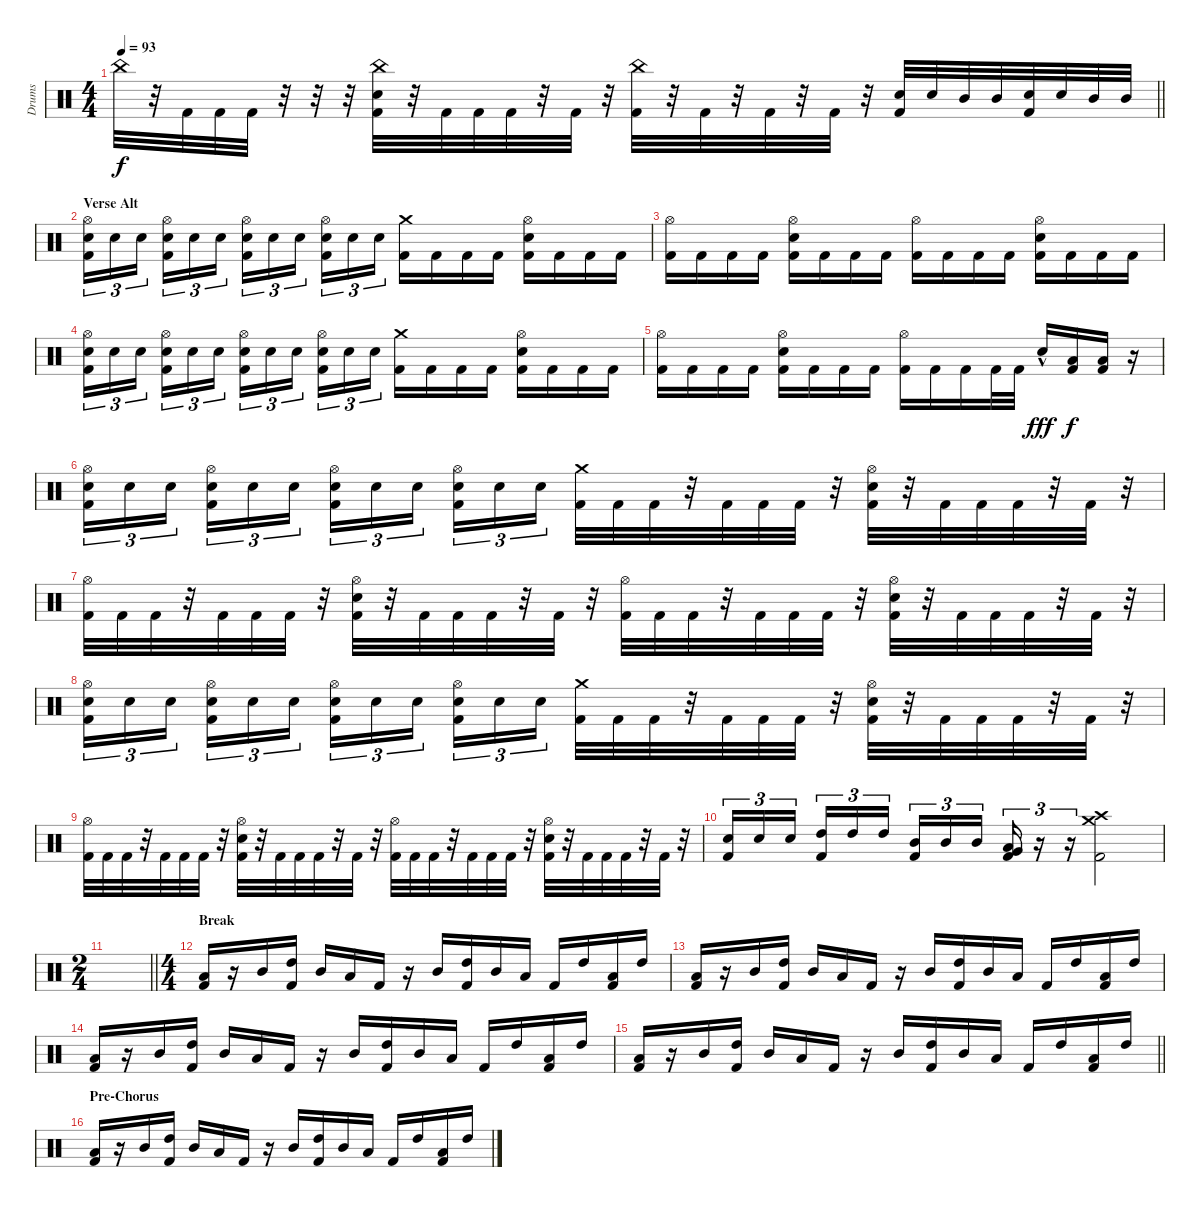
\track ("Drums" "Drums") {instrument percussion}
\staff {score}
\articulation defaults
\ts (4 4)
\tempo 93
\clef neutral
\barLineRight lightlight
\ks c "China (hit)".32{dy f}
r.32 "Kick (hit) 2".32 "Kick (hit) 2".32 "Kick (hit) 2".32 r.32 r.32 r.32 ("China (hit)" "Snare (hit) 2" "Kick (hit) 2").32 r.32 "Kick (hit) 2".32 "Kick (hit) 2".32 "Kick (hit) 2".32 r.32 "Kick (hit) 2".32 r.32 ("China (hit)" "Kick (hit) 2").32 r.32 "Kick (hit) 2".32 r.32 "Kick (hit) 2".32 r.32 "Kick (hit) 2".32 r.32 ("Snare (hit) 2" "Kick (hit) 2").32 "Snare (hit) 2".32 "Mid Tom (hit)".32 "Mid Tom (hit)".32 ("Snare (hit) 2" "Kick (hit) 2").32 "Snare (hit) 2".32 "Mid Tom (hit)".32 "Mid Tom (hit)".32 |
\section ("" "Verse Alt")
("Hi-Hat (open)" "Snare (hit) 2" "Kick (hit) 2").16{tu (3 2)} "Snare (hit) 2".16{tu (3 2)} "Snare (hit) 2".16{tu (3 2) beam splitsecondary} ("Hi-Hat (open)" "Snare (hit) 2" "Kick (hit) 2").16{tu (3 2)} "Snare (hit) 2".16{tu (3 2)} "Snare (hit) 2".16{tu (3 2)} ("Hi-Hat (open)" "Snare (hit) 2" "Kick (hit) 2").16{tu (3 2)} "Snare (hit) 2".16{tu (3 2)} "Snare (hit) 2".16{tu (3 2) beam splitsecondary} ("Hi-Hat (open)" "Snare (hit) 2" "Kick (hit) 2").16{tu (3 2)} "Snare (hit) 2".16{tu (3 2)} "Snare (hit) 2".16{tu (3 2)} ("Crash medium (hit)" "Kick (hit) 2").16 "Kick (hit) 2".16 "Kick (hit) 2".16 "Kick (hit) 2".16 ("Hi-Hat (open)" "Snare (hit) 2" "Kick (hit) 2").16 "Kick (hit) 2".16 "Kick (hit) 2".16 "Kick (hit) 2".16 |
("Hi-Hat (open)" "Kick (hit) 2").16 "Kick (hit) 2".16 "Kick (hit) 2".16 "Kick (hit) 2".16 ("Hi-Hat (open)" "Snare (hit) 2" "Kick (hit) 2").16 "Kick (hit) 2".16 "Kick (hit) 2".16 "Kick (hit) 2".16 ("Hi-Hat (open)" "Kick (hit) 2").16 "Kick (hit) 2".16 "Kick (hit) 2".16 "Kick (hit) 2".16 ("Hi-Hat (open)" "Snare (hit) 2" "Kick (hit) 2").16 "Kick (hit) 2".16 "Kick (hit) 2".16 "Kick (hit) 2".16 |
("Hi-Hat (open)" "Snare (hit) 2" "Kick (hit) 2").16{tu (3 2)} "Snare (hit) 2".16{tu (3 2)} "Snare (hit) 2".16{tu (3 2) beam splitsecondary} ("Hi-Hat (open)" "Snare (hit) 2" "Kick (hit) 2").16{tu (3 2)} "Snare (hit) 2".16{tu (3 2)} "Snare (hit) 2".16{tu (3 2)} ("Hi-Hat (open)" "Snare (hit) 2" "Kick (hit) 2").16{tu (3 2)} "Snare (hit) 2".16{tu (3 2)} "Snare (hit) 2".16{tu (3 2) beam splitsecondary} ("Hi-Hat (open)" "Snare (hit) 2" "Kick (hit) 2").16{tu (3 2)} "Snare (hit) 2".16{tu (3 2)} "Snare (hit) 2".16{tu (3 2)} ("Crash medium (hit)" "Kick (hit) 2").16 "Kick (hit) 2".16 "Kick (hit) 2".16 "Kick (hit) 2".16 ("Hi-Hat (open)" "Snare (hit) 2" "Kick (hit) 2").16 "Kick (hit) 2".16 "Kick (hit) 2".16 "Kick (hit) 2".16 |
("Hi-Hat (open)" "Kick (hit) 2").16 "Kick (hit) 2".16 "Kick (hit) 2".16 "Kick (hit) 2".16 ("Hi-Hat (open)" "Snare (hit) 2" "Kick (hit) 2").16 "Kick (hit) 2".16 "Kick (hit) 2".16 "Kick (hit) 2".16 ("Hi-Hat (open)" "Kick (hit) 2").16 "Kick (hit) 2".16 "Kick (hit) 2".16 "Kick (hit) 2".32 "Kick (hit) 2".32 "Snare (hit) 2"{hac}.16{dy fff} ("Low Tom (hit)" "Kick (hit) 2").16{dy f} ("Low Tom (hit)" "Kick (hit) 2").16 r.16 |
("Hi-Hat (open)" "Snare (hit) 2" "Kick (hit) 2").16{tu (3 2)} "Snare (hit) 2".16{tu (3 2)} "Snare (hit) 2".16{tu (3 2) beam splitsecondary} ("Hi-Hat (open)" "Snare (hit) 2" "Kick (hit) 2").16{tu (3 2)} "Snare (hit) 2".16{tu (3 2)} "Snare (hit) 2".16{tu (3 2)} ("Hi-Hat (open)" "Snare (hit) 2" "Kick (hit) 2").16{tu (3 2)} "Snare (hit) 2".16{tu (3 2)} "Snare (hit) 2".16{tu (3 2) beam splitsecondary} ("Hi-Hat (open)" "Snare (hit) 2" "Kick (hit) 2").16{tu (3 2)} "Snare (hit) 2".16{tu (3 2)} "Snare (hit) 2".16{tu (3 2)} ("Crash medium (hit)" "Kick (hit) 2").32 "Kick (hit) 2".32 "Kick (hit) 2".32 r.32 "Kick (hit) 2".32 "Kick (hit) 2".32 "Kick (hit) 2".32 r.32 ("Hi-Hat (open)" "Snare (hit) 2" "Kick (hit) 2").32 r.32 "Kick (hit) 2".32 "Kick (hit) 2".32 "Kick (hit) 2".32 r.32 "Kick (hit) 2".32 r.32 |
("Hi-Hat (open)" "Kick (hit) 2").32 "Kick (hit) 2".32 "Kick (hit) 2".32 r.32 "Kick (hit) 2".32 "Kick (hit) 2".32 "Kick (hit) 2".32 r.32 ("Hi-Hat (open)" "Snare (hit) 2" "Kick (hit) 2").32 r.32 "Kick (hit) 2".32 "Kick (hit) 2".32 "Kick (hit) 2".32 r.32 "Kick (hit) 2".32 r.32 ("Hi-Hat (open)" "Kick (hit) 2").32 "Kick (hit) 2".32 "Kick (hit) 2".32 r.32 "Kick (hit) 2".32 "Kick (hit) 2".32 "Kick (hit) 2".32 r.32 ("Hi-Hat (open)" "Snare (hit) 2" "Kick (hit) 2").32 r.32 "Kick (hit) 2".32 "Kick (hit) 2".32 "Kick (hit) 2".32 r.32 "Kick (hit) 2".32 r.32 |
("Hi-Hat (open)" "Snare (hit) 2" "Kick (hit) 2").16{tu (3 2)} "Snare (hit) 2".16{tu (3 2)} "Snare (hit) 2".16{tu (3 2) beam splitsecondary} ("Hi-Hat (open)" "Snare (hit) 2" "Kick (hit) 2").16{tu (3 2)} "Snare (hit) 2".16{tu (3 2)} "Snare (hit) 2".16{tu (3 2)} ("Hi-Hat (open)" "Snare (hit) 2" "Kick (hit) 2").16{tu (3 2)} "Snare (hit) 2".16{tu (3 2)} "Snare (hit) 2".16{tu (3 2) beam splitsecondary} ("Hi-Hat (open)" "Snare (hit) 2" "Kick (hit) 2").16{tu (3 2)} "Snare (hit) 2".16{tu (3 2)} "Snare (hit) 2".16{tu (3 2)} ("Crash medium (hit)" "Kick (hit) 2").32 "Kick (hit) 2".32 "Kick (hit) 2".32 r.32 "Kick (hit) 2".32 "Kick (hit) 2".32 "Kick (hit) 2".32 r.32 ("Hi-Hat (open)" "Snare (hit) 2" "Kick (hit) 2").32 r.32 "Kick (hit) 2".32 "Kick (hit) 2".32 "Kick (hit) 2".32 r.32 "Kick (hit) 2".32 r.32 |
("Hi-Hat (open)" "Kick (hit) 2").32 "Kick (hit) 2".32 "Kick (hit) 2".32 r.32 "Kick (hit) 2".32 "Kick (hit) 2".32 "Kick (hit) 2".32 r.32 ("Hi-Hat (open)" "Snare (hit) 2" "Kick (hit) 2").32 r.32 "Kick (hit) 2".32 "Kick (hit) 2".32 "Kick (hit) 2".32 r.32 "Kick (hit) 2".32 r.32 ("Hi-Hat (open)" "Kick (hit) 2").32 "Kick (hit) 2".32 "Kick (hit) 2".32 r.32 "Kick (hit) 2".32 "Kick (hit) 2".32 "Kick (hit) 2".32 r.32 ("Hi-Hat (open)" "Snare (hit) 2" "Kick (hit) 2").32 r.32 "Kick (hit) 2".32 "Kick (hit) 2".32 "Kick (hit) 2".32 r.32 "Kick (hit) 2".32 r.32 |
("Snare (hit) 2" "Kick (hit) 2").16{tu (3 2)} "Snare (hit) 2".16{tu (3 2)} "Snare (hit) 2".16{tu (3 2) beam splitsecondary} ("High Tom (hit)" "Kick (hit) 2").16{tu (3 2)} "High Tom (hit)".16{tu (3 2)} "High Tom (hit)".16{tu (3 2)} ("Mid Tom (hit)" "Kick (hit) 2").16{tu (3 2)} "Mid Tom (hit)".16{tu (3 2)} "Mid Tom (hit)".16{tu (3 2) beam splitsecondary} ("Low Tom (hit)" "Very Low Tom (hit)" "Kick (hit) 2").16{tu (3 2)} r.16{tu (3 2)} r.16{tu (3 2)} ("Crash medium (hit)" "Crash high (hit)" "Kick (hit) 2").2 |
\ts (2 4)
\barLineRight lightlight
|
\ts (4 4)
\section ("" "Break")
("Low Tom (hit)" "Kick (hit) 2").16 r.16 "Mid Tom (hit)".16 ("High Tom (hit)" "Kick (hit) 2").16 "Mid Tom (hit)".16 "Low Tom (hit)".16 "Kick (hit) 2".16 r.16 "Mid Tom (hit)".16 ("High Tom (hit)" "Kick (hit) 2").16 "Mid Tom (hit)".16 "Low Tom (hit)".16 "Kick (hit) 2".16 "High Tom (hit)".16 ("Low Tom (hit)" "Kick (hit) 2").16 "High Tom (hit)".16 |
("Low Tom (hit)" "Kick (hit) 2").16 r.16 "Mid Tom (hit)".16 ("High Tom (hit)" "Kick (hit) 2").16 "Mid Tom (hit)".16 "Low Tom (hit)".16 "Kick (hit) 2".16 r.16 "Mid Tom (hit)".16 ("High Tom (hit)" "Kick (hit) 2").16 "Mid Tom (hit)".16 "Low Tom (hit)".16 "Kick (hit) 2".16 "High Tom (hit)".16 ("Low Tom (hit)" "Kick (hit) 2").16 "High Tom (hit)".16 |
("Low Tom (hit)" "Kick (hit) 2").16 r.16 "Mid Tom (hit)".16 ("High Tom (hit)" "Kick (hit) 2").16 "Mid Tom (hit)".16 "Low Tom (hit)".16 "Kick (hit) 2".16 r.16 "Mid Tom (hit)".16 ("High Tom (hit)" "Kick (hit) 2").16 "Mid Tom (hit)".16 "Low Tom (hit)".16 "Kick (hit) 2".16 "High Tom (hit)".16 ("Low Tom (hit)" "Kick (hit) 2").16 "High Tom (hit)".16 |
\barLineRight lightlight
("Low Tom (hit)" "Kick (hit) 2").16 r.16 "Mid Tom (hit)".16 ("High Tom (hit)" "Kick (hit) 2").16 "Mid Tom (hit)".16 "Low Tom (hit)".16 "Kick (hit) 2".16 r.16 "Mid Tom (hit)".16 ("High Tom (hit)" "Kick (hit) 2").16 "Mid Tom (hit)".16 "Low Tom (hit)".16 "Kick (hit) 2".16 "High Tom (hit)".16 ("Low Tom (hit)" "Kick (hit) 2").16 "High Tom (hit)".16 |
\section ("" "Pre-Chorus")
("Low Tom (hit)" "Kick (hit) 2").16 r.16 "Mid Tom (hit)".16 ("High Tom (hit)" "Kick (hit) 2").16 "Mid Tom (hit)".16 "Low Tom (hit)".16 "Kick (hit) 2".16 r.16 "Mid Tom (hit)".16 ("High Tom (hit)" "Kick (hit) 2").16 "Mid Tom (hit)".16 "Low Tom (hit)".16 "Kick (hit) 2".16 "High Tom (hit)".16 ("Low Tom (hit)" "Kick (hit) 2").16 "High Tom (hit)".16
